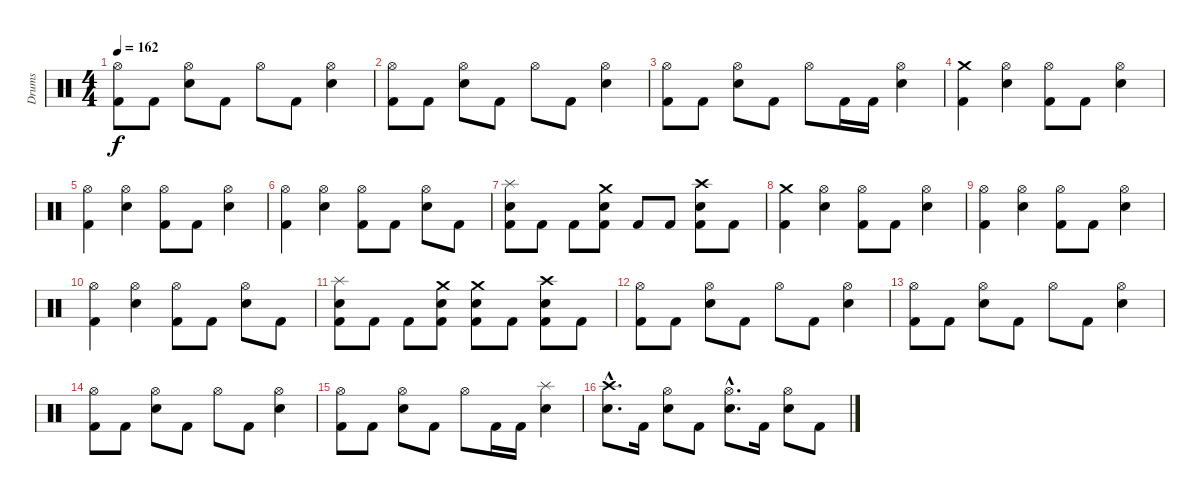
\track ("Drums" "Drums") {instrument percussion}
\staff {score}
\articulation defaults
\ts (4 4)
\tempo 162
\clef neutral
\ks c
("Kick (hit) 2" "Hi-Hat (open)").8{dy f} "Kick (hit) 2".8 ("Electric Snare (hit)" "Hi-Hat (open)").8 "Kick (hit) 2".8 "Hi-Hat (open)".8 "Kick (hit) 2".8 ("Electric Snare (hit)" "Hi-Hat (open)").4 |
("Kick (hit) 2" "Hi-Hat (open)").8 "Kick (hit) 2".8 ("Electric Snare (hit)" "Hi-Hat (open)").8 "Kick (hit) 2".8 "Hi-Hat (open)".8 "Kick (hit) 2".8 ("Electric Snare (hit)" "Hi-Hat (open)").4 |
("Kick (hit) 2" "Hi-Hat (open)").8 "Kick (hit) 2".8 ("Electric Snare (hit)" "Hi-Hat (open)").8 "Kick (hit) 2".8 "Hi-Hat (open)".8 "Kick (hit) 2".16 "Kick (hit) 2".16 ("Electric Snare (hit)" "Hi-Hat (open)").4 |
("Kick (hit) 2" "Crash medium (hit)").4 ("Electric Snare (hit)" "Hi-Hat (open)").4 ("Kick (hit) 2" "Hi-Hat (open)").8 "Kick (hit) 2".8 ("Electric Snare (hit)" "Hi-Hat (open)").4 |
("Kick (hit) 2" "Hi-Hat (open)").4 ("Electric Snare (hit)" "Hi-Hat (open)").4 ("Kick (hit) 2" "Hi-Hat (open)").8 "Kick (hit) 2".8 ("Electric Snare (hit)" "Hi-Hat (open)").4 |
("Kick (hit) 2" "Hi-Hat (open)").4 ("Electric Snare (hit)" "Hi-Hat (open)").4 ("Kick (hit) 2" "Hi-Hat (open)").8 "Kick (hit) 2".8 ("Electric Snare (hit)" "Hi-Hat (open)").8 "Kick (hit) 2".8 |
("Kick (hit) 2" "Electric Snare (hit)" "Splash (hit)").8 "Kick (hit) 2".8 "Kick (hit) 2".8 ("Kick (hit) 2" "Electric Snare (hit)" "Crash medium (hit)").8 "Kick (hit) 2".8 "Kick (hit) 2".8 ("Kick (hit) 2" "Electric Snare (hit)" "Crash high (hit)").8 "Kick (hit) 2".8 |
("Kick (hit) 2" "Crash medium (hit)").4 ("Electric Snare (hit)" "Hi-Hat (open)").4 ("Kick (hit) 2" "Hi-Hat (open)").8 "Kick (hit) 2".8 ("Electric Snare (hit)" "Hi-Hat (open)").4 |
("Kick (hit) 2" "Hi-Hat (open)").4 ("Electric Snare (hit)" "Hi-Hat (open)").4 ("Kick (hit) 2" "Hi-Hat (open)").8 "Kick (hit) 2".8 ("Electric Snare (hit)" "Hi-Hat (open)").4 |
("Kick (hit) 2" "Hi-Hat (open)").4 ("Electric Snare (hit)" "Hi-Hat (open)").4 ("Kick (hit) 2" "Hi-Hat (open)").8 "Kick (hit) 2".8 ("Electric Snare (hit)" "Hi-Hat (open)").8 "Kick (hit) 2".8 |
("Kick (hit) 2" "Electric Snare (hit)" "Splash (hit)").8 "Kick (hit) 2".8 "Kick (hit) 2".8 ("Kick (hit) 2" "Electric Snare (hit)" "Crash medium (hit)").8 ("Kick (hit) 2" "Electric Snare (hit)" "Crash medium (hit)").8 "Kick (hit) 2".8 ("Kick (hit) 2" "Electric Snare (hit)" "Crash high (hit)").8 "Kick (hit) 2".8 |
\section ("" "")
("Kick (hit) 2" "Hi-Hat (open)").8 "Kick (hit) 2".8 ("Electric Snare (hit)" "Hi-Hat (open)").8 "Kick (hit) 2".8 "Hi-Hat (open)".8 "Kick (hit) 2".8 ("Electric Snare (hit)" "Hi-Hat (open)").4 |
("Kick (hit) 2" "Hi-Hat (open)").8 "Kick (hit) 2".8 ("Electric Snare (hit)" "Hi-Hat (open)").8 "Kick (hit) 2".8 "Hi-Hat (open)".8 "Kick (hit) 2".8 ("Electric Snare (hit)" "Hi-Hat (open)").4 |
("Kick (hit) 2" "Hi-Hat (open)").8 "Kick (hit) 2".8 ("Electric Snare (hit)" "Hi-Hat (open)").8 "Kick (hit) 2".8 "Hi-Hat (open)".8 "Kick (hit) 2".8 ("Electric Snare (hit)" "Hi-Hat (open)").4 |
("Kick (hit) 2" "Hi-Hat (open)").8 "Kick (hit) 2".8 ("Electric Snare (hit)" "Hi-Hat (open)").8 "Kick (hit) 2".8 "Hi-Hat (open)".8 "Kick (hit) 2".16 "Kick (hit) 2".16 ("Electric Snare (hit)" "Splash (hit)").4 |
("Electric Snare (hit)"{hac} "Crash high (hit)"{hac}).8{d} "Kick (hit) 2".16 ("Electric Snare (hit)" "Hi-Hat (open)").8 "Kick (hit) 2".8 ("Electric Snare (hit)"{hac} "Hi-Hat (open)"{hac}).8{d} "Kick (hit) 2".16 ("Electric Snare (hit)" "Hi-Hat (open)").8 "Kick (hit) 2".8
